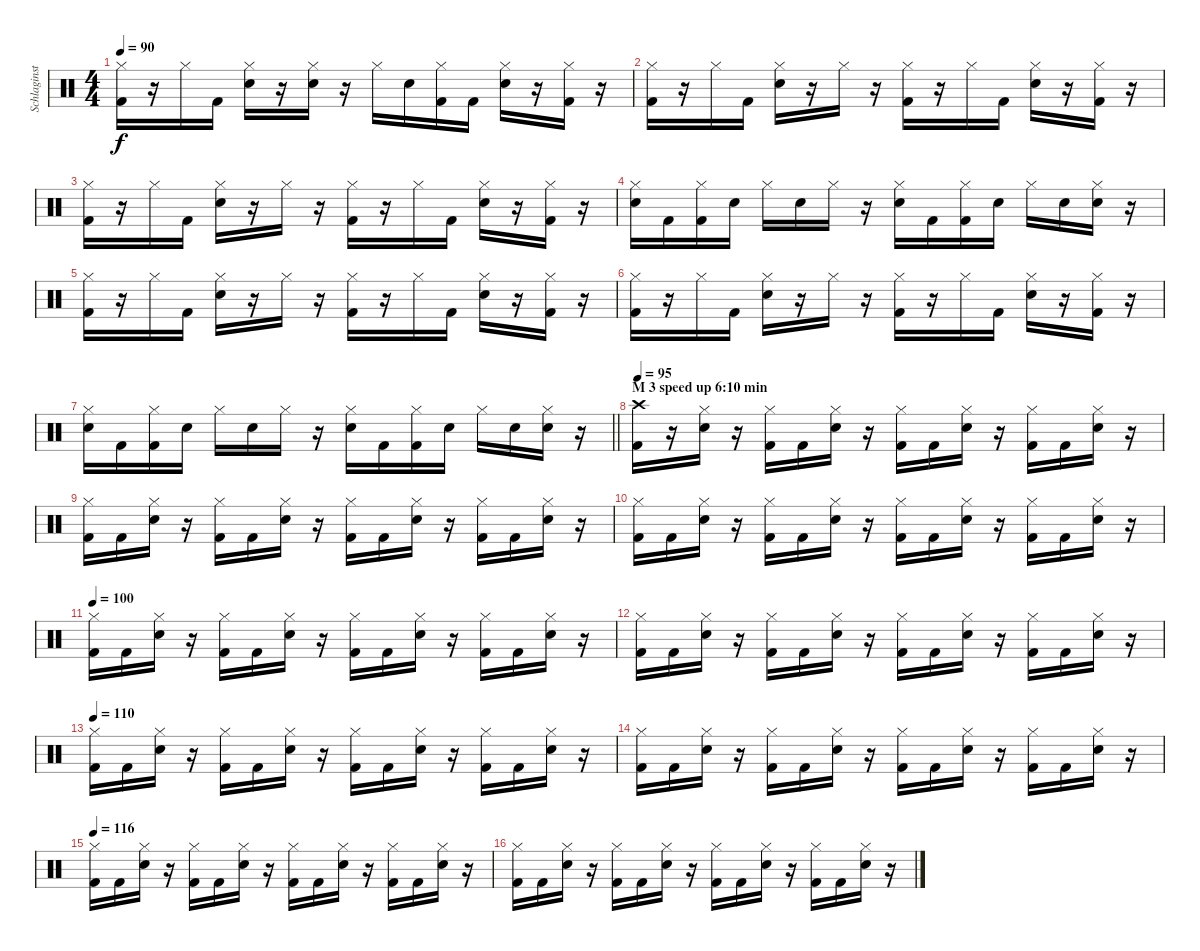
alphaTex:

\track ("Schlaginstrumente - Auswahl" "Schlaginst") {instrument percussion}
\staff {score}
\articulation defaults
\ts (4 4)
\tempo 90
\clef neutral
\ks c
("Hi-Hat (closed)" "Kick (hit) 2").16{dy f} r.16 "Hi-Hat (closed)".16 "Kick (hit) 2".16 ("Hi-Hat (closed)" "Snare (hit) 2").16 r.16 ("Hi-Hat (closed)" "Snare (hit) 2").16 r.16 "Hi-Hat (closed)".16 "Snare (hit) 2".16 ("Hi-Hat (closed)" "Kick (hit) 2").16 "Kick (hit) 2".16 ("Hi-Hat (closed)" "Snare (hit) 2").16 r.16 ("Hi-Hat (closed)" "Kick (hit) 2").16 r.16 |
("Hi-Hat (closed)" "Kick (hit) 2").16 r.16 "Hi-Hat (closed)".16 "Kick (hit) 2".16 ("Hi-Hat (closed)" "Snare (hit) 2").16 r.16 "Hi-Hat (closed)".16 r.16 ("Hi-Hat (closed)" "Kick (hit) 2").16 r.16 "Hi-Hat (closed)".16 "Kick (hit) 2".16 ("Hi-Hat (closed)" "Snare (hit) 2").16 r.16 ("Hi-Hat (closed)" "Kick (hit) 2").16 r.16 |
("Hi-Hat (closed)" "Kick (hit) 2").16 r.16 "Hi-Hat (closed)".16 "Kick (hit) 2".16 ("Hi-Hat (closed)" "Snare (hit) 2").16 r.16 "Hi-Hat (closed)".16 r.16 ("Hi-Hat (closed)" "Kick (hit) 2").16 r.16 "Hi-Hat (closed)".16 "Kick (hit) 2".16 ("Hi-Hat (closed)" "Snare (hit) 2").16 r.16 ("Hi-Hat (closed)" "Kick (hit) 2").16 r.16 |
("Hi-Hat (closed)" "Snare (hit) 2").16 "Kick (hit) 2".16 ("Hi-Hat (closed)" "Kick (hit) 2").16 "Snare (hit) 2".16 "Hi-Hat (closed)".16 "Snare (hit) 2".16 "Hi-Hat (closed)".16 r.16 ("Hi-Hat (closed)" "Snare (hit) 2").16 "Kick (hit) 2".16 ("Hi-Hat (closed)" "Kick (hit) 2").16 "Snare (hit) 2".16 "Hi-Hat (closed)".16 "Snare (hit) 2".16 ("Hi-Hat (closed)" "Snare (hit) 2").16 r.16 |
("Hi-Hat (closed)" "Kick (hit) 2").16 r.16 "Hi-Hat (closed)".16 "Kick (hit) 2".16 ("Hi-Hat (closed)" "Snare (hit) 2").16 r.16 "Hi-Hat (closed)".16 r.16 ("Hi-Hat (closed)" "Kick (hit) 2").16 r.16 "Hi-Hat (closed)".16 "Kick (hit) 2".16 ("Hi-Hat (closed)" "Snare (hit) 2").16 r.16 ("Hi-Hat (closed)" "Kick (hit) 2").16 r.16 |
("Hi-Hat (closed)" "Kick (hit) 2").16 r.16 "Hi-Hat (closed)".16 "Kick (hit) 2".16 ("Hi-Hat (closed)" "Snare (hit) 2").16 r.16 "Hi-Hat (closed)".16 r.16 ("Hi-Hat (closed)" "Kick (hit) 2").16 r.16 "Hi-Hat (closed)".16 "Kick (hit) 2".16 ("Hi-Hat (closed)" "Snare (hit) 2").16 r.16 ("Hi-Hat (closed)" "Kick (hit) 2").16 r.16 |
\barLineRight lightlight
("Hi-Hat (closed)" "Snare (hit) 2").16 "Kick (hit) 2".16 ("Hi-Hat (closed)" "Kick (hit) 2").16 "Snare (hit) 2".16 "Hi-Hat (closed)".16 "Snare (hit) 2".16 "Hi-Hat (closed)".16 r.16 ("Hi-Hat (closed)" "Snare (hit) 2").16 "Kick (hit) 2".16 ("Hi-Hat (closed)" "Kick (hit) 2").16 "Snare (hit) 2".16 "Hi-Hat (closed)".16 "Snare (hit) 2".16 ("Hi-Hat (closed)" "Snare (hit) 2").16 r.16 |
\section ("" "M 3 speed up 6:10 min ")
\tempo 95
("Crash high (hit)" "Kick (hit) 2").16 r.16 ("Hi-Hat (closed)" "Snare (hit) 2").16 r.16 ("Hi-Hat (closed)" "Kick (hit) 2").16 "Kick (hit) 2".16 ("Hi-Hat (closed)" "Snare (hit) 2").16 r.16 ("Hi-Hat (closed)" "Kick (hit) 2").16 "Kick (hit) 2".16 ("Hi-Hat (closed)" "Snare (hit) 2").16 r.16 ("Hi-Hat (closed)" "Kick (hit) 2").16 "Kick (hit) 2".16 ("Hi-Hat (closed)" "Snare (hit) 2").16 r.16 |
("Hi-Hat (closed)" "Kick (hit) 2").16 "Kick (hit) 2".16 ("Hi-Hat (closed)" "Snare (hit) 2").16 r.16 ("Hi-Hat (closed)" "Kick (hit) 2").16 "Kick (hit) 2".16 ("Hi-Hat (closed)" "Snare (hit) 2").16 r.16 ("Hi-Hat (closed)" "Kick (hit) 2").16 "Kick (hit) 2".16 ("Hi-Hat (closed)" "Snare (hit) 2").16 r.16 ("Hi-Hat (closed)" "Kick (hit) 2").16 "Kick (hit) 2".16 ("Hi-Hat (closed)" "Snare (hit) 2").16 r.16 |
("Hi-Hat (closed)" "Kick (hit) 2").16 "Kick (hit) 2".16 ("Hi-Hat (closed)" "Snare (hit) 2").16 r.16 ("Hi-Hat (closed)" "Kick (hit) 2").16 "Kick (hit) 2".16 ("Hi-Hat (closed)" "Snare (hit) 2").16 r.16 ("Hi-Hat (closed)" "Kick (hit) 2").16 "Kick (hit) 2".16 ("Hi-Hat (closed)" "Snare (hit) 2").16 r.16 ("Hi-Hat (closed)" "Kick (hit) 2").16 "Kick (hit) 2".16 ("Hi-Hat (closed)" "Snare (hit) 2").16 r.16 |
\tempo 100
("Hi-Hat (closed)" "Kick (hit) 2").16 "Kick (hit) 2".16 ("Hi-Hat (closed)" "Snare (hit) 2").16 r.16 ("Hi-Hat (closed)" "Kick (hit) 2").16 "Kick (hit) 2".16 ("Hi-Hat (closed)" "Snare (hit) 2").16 r.16 ("Hi-Hat (closed)" "Kick (hit) 2").16 "Kick (hit) 2".16 ("Hi-Hat (closed)" "Snare (hit) 2").16 r.16 ("Hi-Hat (closed)" "Kick (hit) 2").16 "Kick (hit) 2".16 ("Hi-Hat (closed)" "Snare (hit) 2").16 r.16 |
("Hi-Hat (closed)" "Kick (hit) 2").16 "Kick (hit) 2".16 ("Hi-Hat (closed)" "Snare (hit) 2").16 r.16 ("Hi-Hat (closed)" "Kick (hit) 2").16 "Kick (hit) 2".16 ("Hi-Hat (closed)" "Snare (hit) 2").16 r.16 ("Hi-Hat (closed)" "Kick (hit) 2").16 "Kick (hit) 2".16 ("Hi-Hat (closed)" "Snare (hit) 2").16 r.16 ("Hi-Hat (closed)" "Kick (hit) 2").16 "Kick (hit) 2".16 ("Hi-Hat (closed)" "Snare (hit) 2").16 r.16 |
\tempo 110
("Hi-Hat (closed)" "Kick (hit) 2").16 "Kick (hit) 2".16 ("Hi-Hat (closed)" "Snare (hit) 2").16 r.16 ("Hi-Hat (closed)" "Kick (hit) 2").16 "Kick (hit) 2".16 ("Hi-Hat (closed)" "Snare (hit) 2").16 r.16 ("Hi-Hat (closed)" "Kick (hit) 2").16 "Kick (hit) 2".16 ("Hi-Hat (closed)" "Snare (hit) 2").16 r.16 ("Hi-Hat (closed)" "Kick (hit) 2").16 "Kick (hit) 2".16 ("Hi-Hat (closed)" "Snare (hit) 2").16 r.16 |
("Hi-Hat (closed)" "Kick (hit) 2").16 "Kick (hit) 2".16 ("Hi-Hat (closed)" "Snare (hit) 2").16 r.16 ("Hi-Hat (closed)" "Kick (hit) 2").16 "Kick (hit) 2".16 ("Hi-Hat (closed)" "Snare (hit) 2").16 r.16 ("Hi-Hat (closed)" "Kick (hit) 2").16 "Kick (hit) 2".16 ("Hi-Hat (closed)" "Snare (hit) 2").16 r.16 ("Hi-Hat (closed)" "Kick (hit) 2").16 "Kick (hit) 2".16 ("Hi-Hat (closed)" "Snare (hit) 2").16 r.16 |
\tempo 116
("Hi-Hat (closed)" "Kick (hit) 2").16 "Kick (hit) 2".16 ("Hi-Hat (closed)" "Snare (hit) 2").16 r.16 ("Hi-Hat (closed)" "Kick (hit) 2").16 "Kick (hit) 2".16 ("Hi-Hat (closed)" "Snare (hit) 2").16 r.16 ("Hi-Hat (closed)" "Kick (hit) 2").16 "Kick (hit) 2".16 ("Hi-Hat (closed)" "Snare (hit) 2").16 r.16 ("Hi-Hat (closed)" "Kick (hit) 2").16 "Kick (hit) 2".16 ("Hi-Hat (closed)" "Snare (hit) 2").16 r.16 |
("Hi-Hat (closed)" "Kick (hit) 2").16 "Kick (hit) 2".16 ("Hi-Hat (closed)" "Snare (hit) 2").16 r.16 ("Hi-Hat (closed)" "Kick (hit) 2").16 "Kick (hit) 2".16 ("Hi-Hat (closed)" "Snare (hit) 2").16 r.16 ("Hi-Hat (closed)" "Kick (hit) 2").16 "Kick (hit) 2".16 ("Hi-Hat (closed)" "Snare (hit) 2").16 r.16 ("Hi-Hat (closed)" "Kick (hit) 2").16 "Kick (hit) 2".16 ("Hi-Hat (closed)" "Snare (hit) 2").16 r.16
